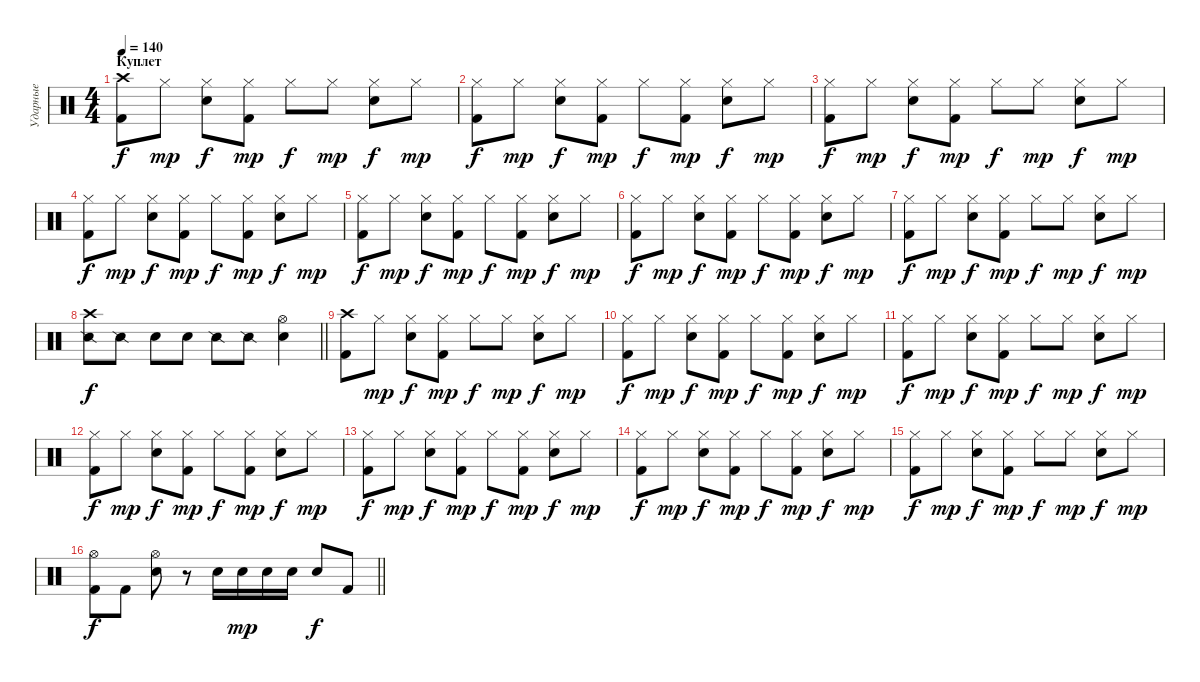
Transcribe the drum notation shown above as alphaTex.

\track ("Ударные" "Ударные") {instrument percussion}
\staff {score}
\articulation defaults
\ts (4 4)
\section ("" "Куплет")
\tempo 140
\clef neutral
\ks c
("Crash high (hit)" "Kick (hit) 2").8{dy f} "Hi-Hat (closed)".8{dy mp} ("Hi-Hat (closed)" "Snare (hit) 2").8{dy f} ("Hi-Hat (closed)" "Kick (hit) 2").8{dy mp} "Hi-Hat (closed)".8{dy f} "Hi-Hat (closed)".8{dy mp} ("Hi-Hat (closed)" "Snare (hit) 2").8{dy f} "Hi-Hat (closed)".8{dy mp} |
("Hi-Hat (closed)" "Kick (hit) 2").8{dy f} "Hi-Hat (closed)".8{dy mp} ("Hi-Hat (closed)" "Snare (hit) 2").8{dy f} ("Hi-Hat (closed)" "Kick (hit) 2").8{dy mp} "Hi-Hat (closed)".8{dy f} ("Hi-Hat (closed)" "Kick (hit) 2").8{dy mp} ("Hi-Hat (closed)" "Snare (hit) 2").8{dy f} "Hi-Hat (closed)".8{dy mp} |
("Hi-Hat (closed)" "Kick (hit) 2").8{dy f} "Hi-Hat (closed)".8{dy mp} ("Hi-Hat (closed)" "Snare (hit) 2").8{dy f} ("Hi-Hat (closed)" "Kick (hit) 2").8{dy mp} "Hi-Hat (closed)".8{dy f} "Hi-Hat (closed)".8{dy mp} ("Hi-Hat (closed)" "Snare (hit) 2").8{dy f} "Hi-Hat (closed)".8{dy mp} |
("Hi-Hat (closed)" "Kick (hit) 2").8{dy f} "Hi-Hat (closed)".8{dy mp} ("Hi-Hat (closed)" "Snare (hit) 2").8{dy f} ("Hi-Hat (closed)" "Kick (hit) 2").8{dy mp} "Hi-Hat (closed)".8{dy f} ("Hi-Hat (closed)" "Kick (hit) 2").8{dy mp} ("Hi-Hat (closed)" "Snare (hit) 2").8{dy f} "Hi-Hat (closed)".8{dy mp} |
("Hi-Hat (closed)" "Kick (hit) 2").8{dy f} "Hi-Hat (closed)".8{dy mp} ("Hi-Hat (closed)" "Snare (hit) 2").8{dy f} ("Hi-Hat (closed)" "Kick (hit) 2").8{dy mp} "Hi-Hat (closed)".8{dy f} ("Hi-Hat (closed)" "Kick (hit) 2").8{dy mp} ("Hi-Hat (closed)" "Snare (hit) 2").8{dy f} "Hi-Hat (closed)".8{dy mp} |
("Hi-Hat (closed)" "Kick (hit) 2").8{dy f} "Hi-Hat (closed)".8{dy mp} ("Hi-Hat (closed)" "Snare (hit) 2").8{dy f} ("Hi-Hat (closed)" "Kick (hit) 2").8{dy mp} "Hi-Hat (closed)".8{dy f} ("Hi-Hat (closed)" "Kick (hit) 2").8{dy mp} ("Hi-Hat (closed)" "Snare (hit) 2").8{dy f} "Hi-Hat (closed)".8{dy mp} |
("Hi-Hat (closed)" "Kick (hit) 2").8{dy f} "Hi-Hat (closed)".8{dy mp} ("Hi-Hat (closed)" "Snare (hit) 2").8{dy f} ("Hi-Hat (closed)" "Kick (hit) 2").8{dy mp} "Hi-Hat (closed)".8{dy f} "Hi-Hat (closed)".8{dy mp} ("Hi-Hat (closed)" "Snare (hit) 2").8{dy f} "Hi-Hat (closed)".8{dy mp} |
\barLineRight lightlight
("Snare (side stick) 2" "Crash high (hit)").8{dy f} "Snare (side stick) 2".8 "Hand Clap (hit)".8 "Hand Clap (hit)".8 "Snare (side stick) 2".8 "Snare (side stick) 2".8 ("Snare (hit) 2" "Hi-Hat (open)").4 |
\section ("" "")
("Crash high (hit)" "Kick (hit) 2").8 "Hi-Hat (closed)".8{dy mp} ("Hi-Hat (closed)" "Snare (hit) 2").8{dy f} ("Hi-Hat (closed)" "Kick (hit) 2").8{dy mp} "Hi-Hat (closed)".8{dy f} "Hi-Hat (closed)".8{dy mp} ("Hi-Hat (closed)" "Snare (hit) 2").8{dy f} "Hi-Hat (closed)".8{dy mp} |
("Hi-Hat (closed)" "Kick (hit) 2").8{dy f} "Hi-Hat (closed)".8{dy mp} ("Hi-Hat (closed)" "Snare (hit) 2").8{dy f} ("Hi-Hat (closed)" "Kick (hit) 2").8{dy mp} "Hi-Hat (closed)".8{dy f} ("Hi-Hat (closed)" "Kick (hit) 2").8{dy mp} ("Hi-Hat (closed)" "Snare (hit) 2").8{dy f} "Hi-Hat (closed)".8{dy mp} |
("Hi-Hat (closed)" "Kick (hit) 2").8{dy f} "Hi-Hat (closed)".8{dy mp} ("Hi-Hat (closed)" "Snare (hit) 2").8{dy f} ("Hi-Hat (closed)" "Kick (hit) 2").8{dy mp} "Hi-Hat (closed)".8{dy f} "Hi-Hat (closed)".8{dy mp} ("Hi-Hat (closed)" "Snare (hit) 2").8{dy f} "Hi-Hat (closed)".8{dy mp} |
("Hi-Hat (closed)" "Kick (hit) 2").8{dy f} "Hi-Hat (closed)".8{dy mp} ("Hi-Hat (closed)" "Snare (hit) 2").8{dy f} ("Hi-Hat (closed)" "Kick (hit) 2").8{dy mp} "Hi-Hat (closed)".8{dy f} ("Hi-Hat (closed)" "Kick (hit) 2").8{dy mp} ("Hi-Hat (closed)" "Snare (hit) 2").8{dy f} "Hi-Hat (closed)".8{dy mp} |
("Hi-Hat (closed)" "Kick (hit) 2").8{dy f} "Hi-Hat (closed)".8{dy mp} ("Hi-Hat (closed)" "Snare (hit) 2").8{dy f} ("Hi-Hat (closed)" "Kick (hit) 2").8{dy mp} "Hi-Hat (closed)".8{dy f} ("Hi-Hat (closed)" "Kick (hit) 2").8{dy mp} ("Hi-Hat (closed)" "Snare (hit) 2").8{dy f} "Hi-Hat (closed)".8{dy mp} |
("Hi-Hat (closed)" "Kick (hit) 2").8{dy f} "Hi-Hat (closed)".8{dy mp} ("Hi-Hat (closed)" "Snare (hit) 2").8{dy f} ("Hi-Hat (closed)" "Kick (hit) 2").8{dy mp} "Hi-Hat (closed)".8{dy f} ("Hi-Hat (closed)" "Kick (hit) 2").8{dy mp} ("Hi-Hat (closed)" "Snare (hit) 2").8{dy f} "Hi-Hat (closed)".8{dy mp} |
("Hi-Hat (closed)" "Kick (hit) 2").8{dy f} "Hi-Hat (closed)".8{dy mp} ("Hi-Hat (closed)" "Snare (hit) 2").8{dy f} ("Hi-Hat (closed)" "Kick (hit) 2").8{dy mp} "Hi-Hat (closed)".8{dy f} "Hi-Hat (closed)".8{dy mp} ("Hi-Hat (closed)" "Snare (hit) 2").8{dy f} "Hi-Hat (closed)".8{dy mp} |
\barLineRight lightlight
("Hi-Hat (open)" "Kick (hit) 2").8{dy f} "Kick (hit) 2".8 ("Hi-Hat (open)" "Snare (hit) 2").8 r.8 "Snare (hit) 2".16 "Snare (hit) 2".16{dy mp} "Snare (hit) 2".16 "Snare (hit) 2".16 "Snare (hit) 2".8{dy f} "Kick (hit) 2".8
